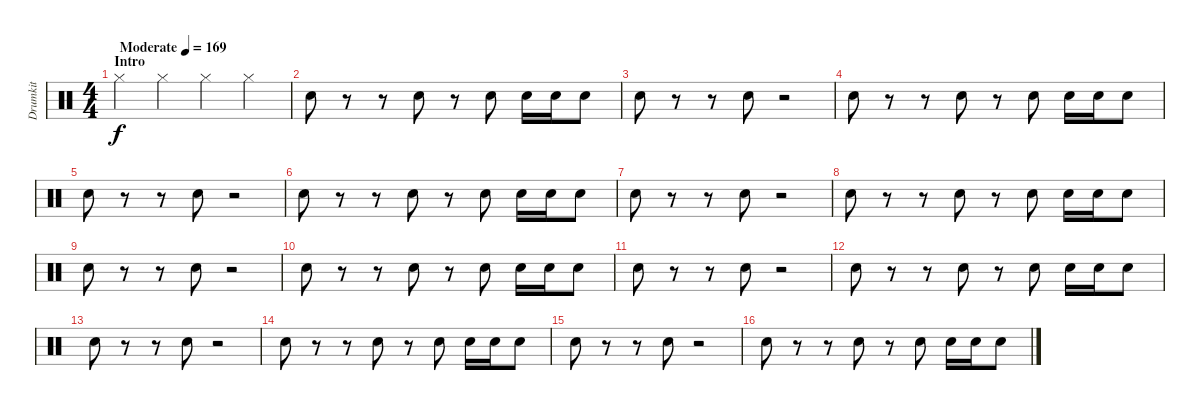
\track ("Drumkit" "Drumkit") {instrument percussion}
\staff {score}
\articulation defaults
\ts (4 4)
\section ("" "Intro")
\tempo (169 "Moderate")
\clef neutral
\ks c "Hi-Hat (closed)".4{dy f} "Hi-Hat (closed)".4 "Hi-Hat (closed)".4 "Hi-Hat (closed)".4
|
"Snare (hit) 2".8 r.8 r.8 "Snare (hit) 2".8 r.8 "Snare (hit) 2".8 "Snare (hit) 2".16 "Snare (hit) 2".16 "Snare (hit) 2".8 |
"Snare (hit) 2".8 r.8 r.8 "Snare (hit) 2".8 r.2 |
"Snare (hit) 2".8 r.8 r.8 "Snare (hit) 2".8 r.8 "Snare (hit) 2".8 "Snare (hit) 2".16 "Snare (hit) 2".16 "Snare (hit) 2".8 |
"Snare (hit) 2".8 r.8 r.8 "Snare (hit) 2".8 r.2 |
"Snare (hit) 2".8 r.8 r.8 "Snare (hit) 2".8 r.8 "Snare (hit) 2".8 "Snare (hit) 2".16 "Snare (hit) 2".16 "Snare (hit) 2".8 |
"Snare (hit) 2".8 r.8 r.8 "Snare (hit) 2".8 r.2 |
"Snare (hit) 2".8 r.8 r.8 "Snare (hit) 2".8 r.8 "Snare (hit) 2".8 "Snare (hit) 2".16 "Snare (hit) 2".16 "Snare (hit) 2".8 |
"Snare (hit) 2".8 r.8 r.8 "Snare (hit) 2".8 r.2 |
"Snare (hit) 2".8 r.8 r.8 "Snare (hit) 2".8 r.8 "Snare (hit) 2".8 "Snare (hit) 2".16 "Snare (hit) 2".16 "Snare (hit) 2".8 |
"Snare (hit) 2".8 r.8 r.8 "Snare (hit) 2".8 r.2 |
"Snare (hit) 2".8 r.8 r.8 "Snare (hit) 2".8 r.8 "Snare (hit) 2".8 "Snare (hit) 2".16 "Snare (hit) 2".16 "Snare (hit) 2".8 |
"Snare (hit) 2".8 r.8 r.8 "Snare (hit) 2".8 r.2 |
"Snare (hit) 2".8 r.8 r.8 "Snare (hit) 2".8 r.8 "Snare (hit) 2".8 "Snare (hit) 2".16 "Snare (hit) 2".16 "Snare (hit) 2".8 |
"Snare (hit) 2".8 r.8 r.8 "Snare (hit) 2".8 r.2 |
"Snare (hit) 2".8 r.8 r.8 "Snare (hit) 2".8 r.8 "Snare (hit) 2".8 "Snare (hit) 2".16 "Snare (hit) 2".16 "Snare (hit) 2".8
